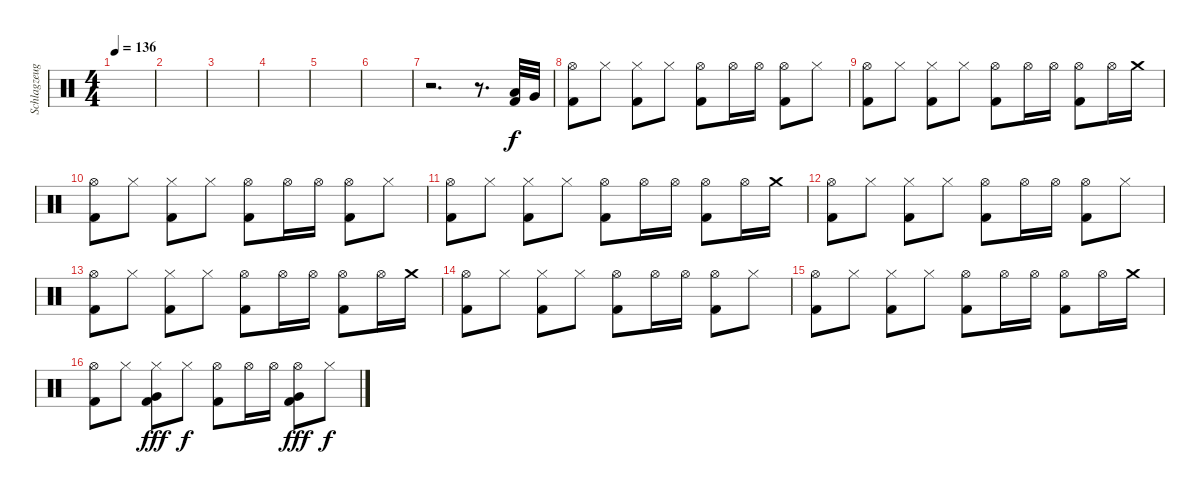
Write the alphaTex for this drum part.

\track ("Schlagzeug - der Hund Marie" "Schlagzeug") {instrument percussion}
\staff {score}
\articulation defaults
\ts (4 4)
\tempo 136
\clef neutral
\ks c
|
|
|
|
|
|
r.2{d} r.8{d} ("Low Floor Tom (hit)" "Kick (hit) 2").32 "Very Low Tom (hit)".32 |
("Hi-Hat (open)" "Kick (hit) 2").8 "Hi-Hat (closed)".8 ("Hi-Hat (closed)" "Kick (hit) 2").8 "Hi-Hat (closed)".8 ("Hi-Hat (open)" "Kick (hit) 2").8 "Hi-Hat (open)".16 "Hi-Hat (open)".16 ("Hi-Hat (open)" "Kick (hit) 2").8 "Hi-Hat (closed)".8 |
("Hi-Hat (open)" "Kick (hit) 2").8 "Hi-Hat (closed)".8 ("Hi-Hat (closed)" "Kick (hit) 2").8 "Hi-Hat (closed)".8 ("Hi-Hat (open)" "Kick (hit) 2").8 "Hi-Hat (open)".16 "Hi-Hat (open)".16 ("Hi-Hat (open)" "Kick (hit) 2").8 "Hi-Hat (open)".16 "Crash medium (hit)".16 |
("Hi-Hat (open)" "Kick (hit) 2").8 "Hi-Hat (closed)".8 ("Hi-Hat (closed)" "Kick (hit) 2").8 "Hi-Hat (closed)".8 ("Hi-Hat (open)" "Kick (hit) 2").8 "Hi-Hat (open)".16 "Hi-Hat (open)".16 ("Hi-Hat (open)" "Kick (hit) 2").8 "Hi-Hat (closed)".8 |
("Hi-Hat (open)" "Kick (hit) 2").8 "Hi-Hat (closed)".8 ("Hi-Hat (closed)" "Kick (hit) 2").8 "Hi-Hat (closed)".8 ("Hi-Hat (open)" "Kick (hit) 2").8 "Hi-Hat (open)".16 "Hi-Hat (open)".16 ("Hi-Hat (open)" "Kick (hit) 2").8 "Hi-Hat (open)".16 "Crash medium (hit)".16 |
("Hi-Hat (open)" "Kick (hit) 2").8 "Hi-Hat (closed)".8 ("Hi-Hat (closed)" "Kick (hit) 2").8 "Hi-Hat (closed)".8 ("Hi-Hat (open)" "Kick (hit) 2").8 "Hi-Hat (open)".16 "Hi-Hat (open)".16 ("Hi-Hat (open)" "Kick (hit) 2").8 "Hi-Hat (closed)".8 |
("Hi-Hat (open)" "Kick (hit) 2").8 "Hi-Hat (closed)".8 ("Hi-Hat (closed)" "Kick (hit) 2").8 "Hi-Hat (closed)".8 ("Hi-Hat (open)" "Kick (hit) 2").8 "Hi-Hat (open)".16 "Hi-Hat (open)".16 ("Hi-Hat (open)" "Kick (hit) 2").8 "Hi-Hat (open)".16 "Crash medium (hit)".16 |
("Hi-Hat (open)" "Kick (hit) 2").8 "Hi-Hat (closed)".8 ("Hi-Hat (closed)" "Kick (hit) 2").8 "Hi-Hat (closed)".8 ("Hi-Hat (open)" "Kick (hit) 2").8 "Hi-Hat (open)".16 "Hi-Hat (open)".16 ("Hi-Hat (open)" "Kick (hit) 2").8 "Hi-Hat (closed)".8 |
("Hi-Hat (open)" "Kick (hit) 2").8 "Hi-Hat (closed)".8 ("Hi-Hat (closed)" "Kick (hit) 2").8 "Hi-Hat (closed)".8 ("Hi-Hat (open)" "Kick (hit) 2").8 "Hi-Hat (open)".16 "Hi-Hat (open)".16 ("Hi-Hat (open)" "Kick (hit) 2").8 "Hi-Hat (open)".16 "Crash medium (hit)".16 |
("Hi-Hat (open)" "Kick (hit) 2").8 "Hi-Hat (closed)".8 ("Hi-Hat (closed)" "Very Low Tom (hit)" "Kick (hit) 2").8{dy fff} "Hi-Hat (closed)".8{dy f} ("Hi-Hat (open)" "Kick (hit) 2").8 "Hi-Hat (open)".16 "Hi-Hat (open)".16 ("Hi-Hat (open)" "Very Low Tom (hit)" "Kick (hit) 2").8{dy fff} "Hi-Hat (closed)".8{dy f}
